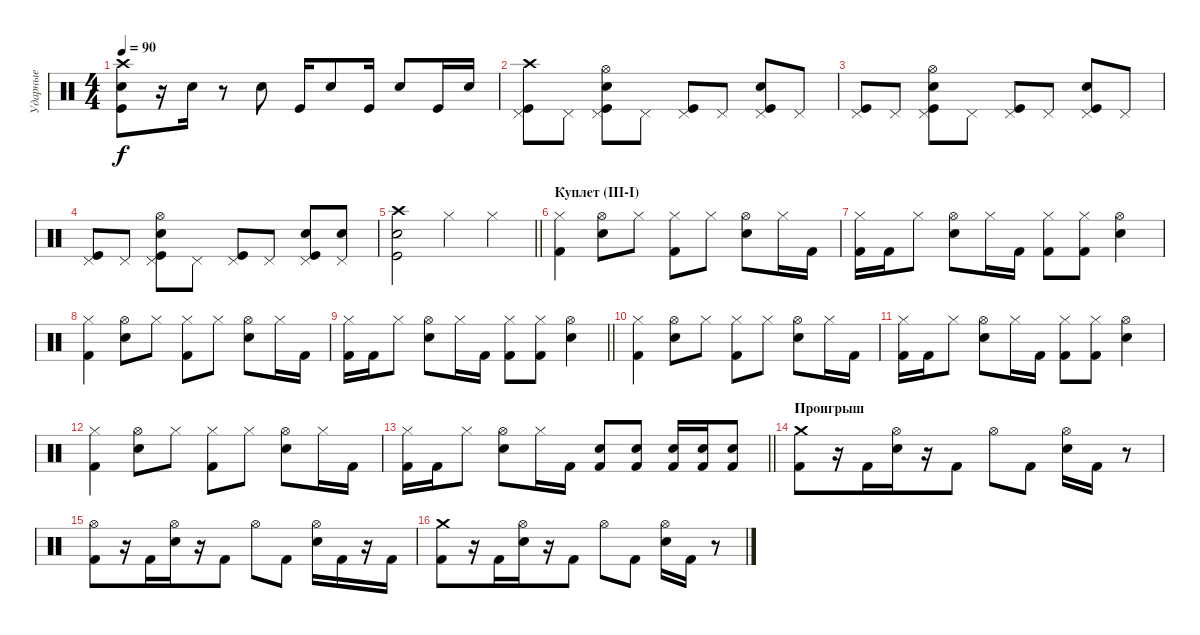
\track ("Ударные" "Ударные") {instrument percussion}
\staff {score}
\articulation defaults
\ts (4 4)
\tempo 90
\clef neutral
\ks c
("Crash high (hit)" "Snare (hit) 2" "Kick (hit)").8{dy f} r.16 "Snare (hit) 2".16 r.8 "Snare (hit) 2".8 "Kick (hit)".16 "Snare (hit) 2".8 "Kick (hit)".16 "Snare (hit) 2".8 "Kick (hit)".16 "Snare (hit) 2".16 |
("Crash high (hit)" "Kick (hit)" "Pedal Hi-Hat (hit)").8 "Pedal Hi-Hat (hit)".8 ("Hi-Hat (open)" "Snare (hit) 2" "Kick (hit)" "Pedal Hi-Hat (hit)").8 "Pedal Hi-Hat (hit)".8 ("Kick (hit)" "Pedal Hi-Hat (hit)").8 "Pedal Hi-Hat (hit)".8 ("Kick (hit)" "Snare (hit) 2" "Pedal Hi-Hat (hit)").8 "Pedal Hi-Hat (hit)".8 |
("Kick (hit)" "Pedal Hi-Hat (hit)").8 "Pedal Hi-Hat (hit)".8 ("Hi-Hat (open)" "Snare (hit) 2" "Kick (hit)" "Pedal Hi-Hat (hit)").8 "Pedal Hi-Hat (hit)".8 ("Kick (hit)" "Pedal Hi-Hat (hit)").8 "Pedal Hi-Hat (hit)".8 ("Kick (hit)" "Snare (hit) 2" "Pedal Hi-Hat (hit)").8 "Pedal Hi-Hat (hit)".8 |
("Kick (hit)" "Pedal Hi-Hat (hit)").8 "Pedal Hi-Hat (hit)".8 ("Hi-Hat (open)" "Snare (hit) 2" "Kick (hit)" "Pedal Hi-Hat (hit)").8 "Pedal Hi-Hat (hit)".8 ("Kick (hit)" "Pedal Hi-Hat (hit)").8 "Pedal Hi-Hat (hit)".8 ("Kick (hit)" "Snare (hit) 2" "Pedal Hi-Hat (hit)").8 ("Snare (hit) 2" "Pedal Hi-Hat (hit)").8 |
\barLineRight lightlight
("Crash high (hit)" "Snare (hit) 2" "Kick (hit)").2 "Hi-Hat (closed)".4 "Hi-Hat (closed)".4 |
\section ("" "Куплет (III-I)")
("Hi-Hat (closed)" "Kick (hit) 2").4 ("Hi-Hat (open)" "Snare (hit) 2").8 "Hi-Hat (closed)".8 ("Hi-Hat (closed)" "Kick (hit) 2").8 "Hi-Hat (closed)".8 ("Hi-Hat (open)" "Snare (hit) 2").8 "Hi-Hat (closed)".16 "Kick (hit) 2".16 |
("Hi-Hat (closed)" "Kick (hit) 2").16 "Kick (hit) 2".16 "Hi-Hat (closed)".8 ("Hi-Hat (open)" "Snare (hit) 2").8 "Hi-Hat (closed)".16 "Kick (hit) 2".16 ("Hi-Hat (closed)" "Kick (hit) 2").8 ("Hi-Hat (closed)" "Kick (hit) 2").8 ("Hi-Hat (open)" "Snare (hit) 2").4 |
("Hi-Hat (closed)" "Kick (hit) 2").4 ("Hi-Hat (open)" "Snare (hit) 2").8 "Hi-Hat (closed)".8 ("Hi-Hat (closed)" "Kick (hit) 2").8 "Hi-Hat (closed)".8 ("Hi-Hat (open)" "Snare (hit) 2").8 "Hi-Hat (closed)".16 "Kick (hit) 2".16 |
\barLineRight lightlight
("Hi-Hat (closed)" "Kick (hit) 2").16 "Kick (hit) 2".16 "Hi-Hat (closed)".8 ("Hi-Hat (open)" "Snare (hit) 2").8 "Hi-Hat (closed)".16 "Kick (hit) 2".16 ("Hi-Hat (closed)" "Kick (hit) 2").8 ("Hi-Hat (closed)" "Kick (hit) 2").8 ("Hi-Hat (open)" "Snare (hit) 2").4 |
("Hi-Hat (closed)" "Kick (hit) 2").4 ("Hi-Hat (open)" "Snare (hit) 2").8 "Hi-Hat (closed)".8 ("Hi-Hat (closed)" "Kick (hit) 2").8 "Hi-Hat (closed)".8 ("Hi-Hat (open)" "Snare (hit) 2").8 "Hi-Hat (closed)".16 "Kick (hit) 2".16 |
("Hi-Hat (closed)" "Kick (hit) 2").16 "Kick (hit) 2".16 "Hi-Hat (closed)".8 ("Hi-Hat (open)" "Snare (hit) 2").8 "Hi-Hat (closed)".16 "Kick (hit) 2".16 ("Hi-Hat (closed)" "Kick (hit) 2").8 ("Hi-Hat (closed)" "Kick (hit) 2").8 ("Hi-Hat (open)" "Snare (hit) 2").4 |
("Hi-Hat (closed)" "Kick (hit) 2").4 ("Hi-Hat (open)" "Snare (hit) 2").8 "Hi-Hat (closed)".8 ("Hi-Hat (closed)" "Kick (hit) 2").8 "Hi-Hat (closed)".8 ("Hi-Hat (open)" "Snare (hit) 2").8 "Hi-Hat (closed)".16 "Kick (hit) 2".16 |
\barLineRight lightlight
("Hi-Hat (closed)" "Kick (hit) 2").16 "Kick (hit) 2".16 "Hi-Hat (closed)".8 ("Hi-Hat (open)" "Snare (hit) 2").8 "Hi-Hat (closed)".16 "Kick (hit) 2".16 ("Snare (hit) 2" "Kick (hit) 2").8 ("Snare (hit) 2" "Kick (hit) 2").8 ("Snare (hit) 2" "Kick (hit) 2").16 ("Snare (hit) 2" "Kick (hit) 2").16 ("Snare (hit) 2" "Kick (hit) 2").8 |
\section ("" "Проигрыш")
("Crash medium (hit)" "Kick (hit) 2").8 r.16 "Kick (hit) 2".16{beam merge} ("Hi-Hat (open)" "Electric Snare (hit)").16 r.16 "Kick (hit) 2".8 "Hi-Hat (open)".8 "Kick (hit) 2".8 ("Hi-Hat (open)" "Electric Snare (hit)").16 "Kick (hit) 2".16 r.8 |
("Hi-Hat (open)" "Kick (hit) 2").8 r.16 "Kick (hit) 2".16{beam merge} ("Hi-Hat (open)" "Electric Snare (hit)").16 r.16 "Kick (hit) 2".8 "Hi-Hat (open)".8 "Kick (hit) 2".8 ("Hi-Hat (open)" "Electric Snare (hit)").16 "Kick (hit) 2".16 r.16 "Kick (hit) 2".16 |
("Crash medium (hit)" "Kick (hit) 2").8 r.16 "Kick (hit) 2".16{beam merge} ("Hi-Hat (open)" "Electric Snare (hit)").16 r.16 "Kick (hit) 2".8 "Hi-Hat (open)".8 "Kick (hit) 2".8 ("Hi-Hat (open)" "Electric Snare (hit)").16 "Kick (hit) 2".16 r.8
